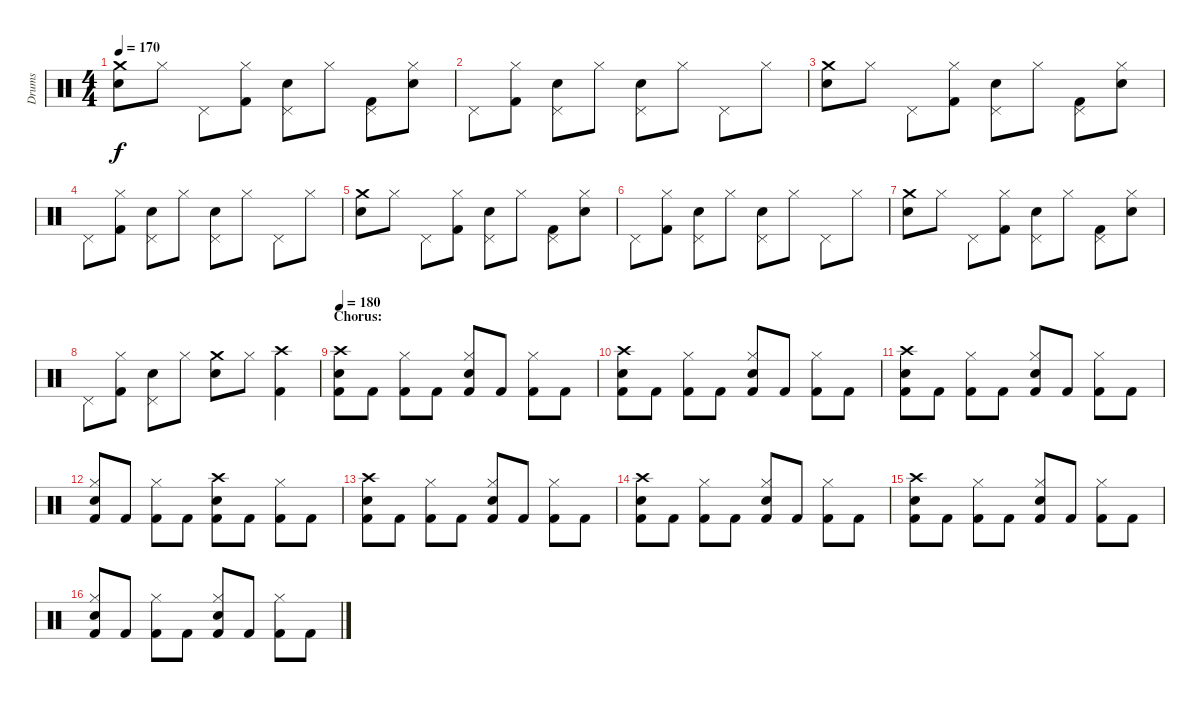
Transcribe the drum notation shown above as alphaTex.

\track ("Drums" "Drums") {instrument percussion}
\staff {score}
\articulation defaults
\ts (4 4)
\tempo 170
\clef neutral
\ks c
("Crash medium (hit)" "Electric Snare (hit)").8{dy f} "Hi-Hat (closed)".8 "Pedal Hi-Hat (hit)".8 ("Hi-Hat (closed)" "Kick (hit) 2").8 ("Pedal Hi-Hat (hit)" "Electric Snare (hit)").8 "Hi-Hat (closed)".8 ("Pedal Hi-Hat (hit)" "Kick (hit) 2").8 ("Hi-Hat (closed)" "Electric Snare (hit)").8 |
"Pedal Hi-Hat (hit)".8 ("Hi-Hat (closed)" "Kick (hit) 2").8 ("Pedal Hi-Hat (hit)" "Electric Snare (hit)").8 "Hi-Hat (closed)".8 ("Pedal Hi-Hat (hit)" "Electric Snare (hit)").8 "Hi-Hat (closed)".8 "Pedal Hi-Hat (hit)".8 "Hi-Hat (closed)".8 |
("Crash medium (hit)" "Electric Snare (hit)").8 "Hi-Hat (closed)".8 "Pedal Hi-Hat (hit)".8 ("Hi-Hat (closed)" "Kick (hit) 2").8 ("Pedal Hi-Hat (hit)" "Electric Snare (hit)").8 "Hi-Hat (closed)".8 ("Pedal Hi-Hat (hit)" "Kick (hit) 2").8 ("Hi-Hat (closed)" "Electric Snare (hit)").8 |
"Pedal Hi-Hat (hit)".8 ("Hi-Hat (closed)" "Kick (hit) 2").8 ("Pedal Hi-Hat (hit)" "Electric Snare (hit)").8 "Hi-Hat (closed)".8 ("Pedal Hi-Hat (hit)" "Electric Snare (hit)").8 "Hi-Hat (closed)".8 "Pedal Hi-Hat (hit)".8 "Hi-Hat (closed)".8 |
("Crash medium (hit)" "Electric Snare (hit)").8 "Hi-Hat (closed)".8 "Pedal Hi-Hat (hit)".8 ("Hi-Hat (closed)" "Kick (hit) 2").8 ("Pedal Hi-Hat (hit)" "Electric Snare (hit)").8 "Hi-Hat (closed)".8 ("Pedal Hi-Hat (hit)" "Kick (hit) 2").8 ("Hi-Hat (closed)" "Electric Snare (hit)").8 |
"Pedal Hi-Hat (hit)".8 ("Hi-Hat (closed)" "Kick (hit) 2").8 ("Pedal Hi-Hat (hit)" "Electric Snare (hit)").8 "Hi-Hat (closed)".8 ("Pedal Hi-Hat (hit)" "Electric Snare (hit)").8 "Hi-Hat (closed)".8 "Pedal Hi-Hat (hit)".8 "Hi-Hat (closed)".8 |
("Crash medium (hit)" "Electric Snare (hit)").8 "Hi-Hat (closed)".8 "Pedal Hi-Hat (hit)".8 ("Hi-Hat (closed)" "Kick (hit) 2").8 ("Pedal Hi-Hat (hit)" "Electric Snare (hit)").8 "Hi-Hat (closed)".8 ("Pedal Hi-Hat (hit)" "Kick (hit) 2").8 ("Hi-Hat (closed)" "Electric Snare (hit)").8 |
"Pedal Hi-Hat (hit)".8 ("Hi-Hat (closed)" "Kick (hit) 2").8 ("Pedal Hi-Hat (hit)" "Electric Snare (hit)").8 "Hi-Hat (closed)".8 ("Crash medium (hit)" "Electric Snare (hit)").8 "Hi-Hat (closed)".8 ("Crash high (hit)" "Kick (hit) 2").4 |
\section ("" "Chorus:")
\tempo 180
("Crash high (hit)" "Electric Snare (hit)" "Kick (hit) 2").8 "Kick (hit) 2".8 ("Hi-Hat (closed)" "Kick (hit) 2").8 "Kick (hit) 2".8 ("Hi-Hat (closed)" "Electric Snare (hit)" "Kick (hit) 2").8 "Kick (hit) 2".8 ("Hi-Hat (closed)" "Kick (hit) 2").8 "Kick (hit) 2".8 |
("Crash high (hit)" "Electric Snare (hit)" "Kick (hit) 2").8 "Kick (hit) 2".8 ("Hi-Hat (closed)" "Kick (hit) 2").8 "Kick (hit) 2".8 ("Hi-Hat (closed)" "Electric Snare (hit)" "Kick (hit) 2").8 "Kick (hit) 2".8 ("Hi-Hat (closed)" "Kick (hit) 2").8 "Kick (hit) 2".8 |
("Crash high (hit)" "Electric Snare (hit)" "Kick (hit) 2").8 "Kick (hit) 2".8 ("Hi-Hat (closed)" "Kick (hit) 2").8 "Kick (hit) 2".8 ("Hi-Hat (closed)" "Electric Snare (hit)" "Kick (hit) 2").8 "Kick (hit) 2".8 ("Hi-Hat (closed)" "Kick (hit) 2").8 "Kick (hit) 2".8 |
("Hi-Hat (closed)" "Electric Snare (hit)" "Kick (hit) 2").8 "Kick (hit) 2".8 ("Hi-Hat (closed)" "Kick (hit) 2").8 "Kick (hit) 2".8 ("Crash high (hit)" "Electric Snare (hit)" "Kick (hit) 2").8 "Kick (hit) 2".8 ("Hi-Hat (closed)" "Kick (hit) 2").8 "Kick (hit) 2".8 |
("Crash high (hit)" "Electric Snare (hit)" "Kick (hit) 2").8 "Kick (hit) 2".8 ("Hi-Hat (closed)" "Kick (hit) 2").8 "Kick (hit) 2".8 ("Hi-Hat (closed)" "Electric Snare (hit)" "Kick (hit) 2").8 "Kick (hit) 2".8 ("Hi-Hat (closed)" "Kick (hit) 2").8 "Kick (hit) 2".8 |
("Crash high (hit)" "Electric Snare (hit)" "Kick (hit) 2").8 "Kick (hit) 2".8 ("Hi-Hat (closed)" "Kick (hit) 2").8 "Kick (hit) 2".8 ("Hi-Hat (closed)" "Electric Snare (hit)" "Kick (hit) 2").8 "Kick (hit) 2".8 ("Hi-Hat (closed)" "Kick (hit) 2").8 "Kick (hit) 2".8 |
("Crash high (hit)" "Electric Snare (hit)" "Kick (hit) 2").8 "Kick (hit) 2".8 ("Hi-Hat (closed)" "Kick (hit) 2").8 "Kick (hit) 2".8 ("Hi-Hat (closed)" "Electric Snare (hit)" "Kick (hit) 2").8 "Kick (hit) 2".8 ("Hi-Hat (closed)" "Kick (hit) 2").8 "Kick (hit) 2".8 |
("Hi-Hat (closed)" "Electric Snare (hit)" "Kick (hit) 2").8 "Kick (hit) 2".8 ("Hi-Hat (closed)" "Kick (hit) 2").8 "Kick (hit) 2".8 ("Hi-Hat (closed)" "Electric Snare (hit)" "Kick (hit) 2").8 "Kick (hit) 2".8 ("Hi-Hat (closed)" "Kick (hit) 2").8 "Kick (hit) 2".8
